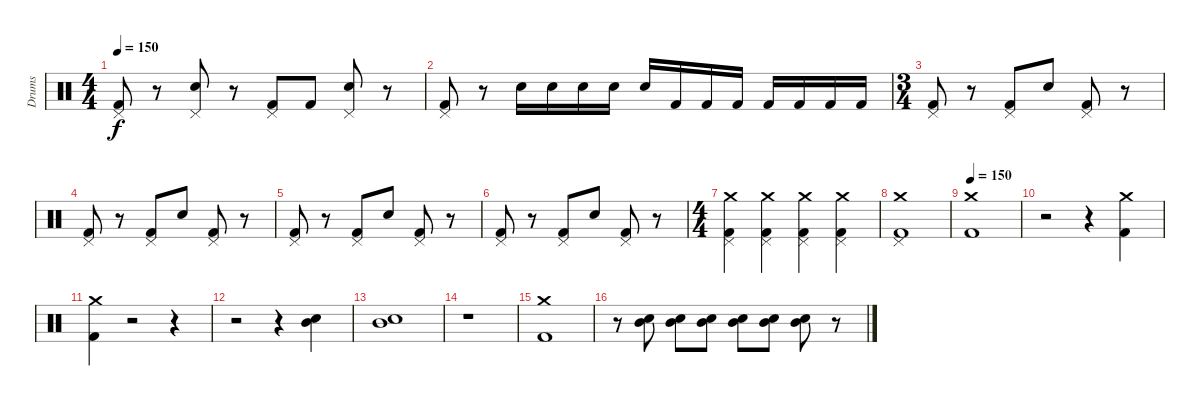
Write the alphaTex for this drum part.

\track ("Drums" "Drums") {instrument percussion}
\staff {score}
\articulation defaults
\ts (4 4)
\tempo 150
\clef neutral
\ks c
("Kick (hit) 2" "Pedal Hi-Hat (hit)").8{dy f} r.8 ("Pedal Hi-Hat (hit)" "Electric Snare (hit)").8 r.8 ("Kick (hit) 2" "Pedal Hi-Hat (hit)").8 "Kick (hit) 2".8 ("Pedal Hi-Hat (hit)" "Electric Snare (hit)").8 r.8 |
("Kick (hit) 2" "Pedal Hi-Hat (hit)").8 r.8 "Electric Snare (hit)".16 "Electric Snare (hit)".16 "Electric Snare (hit)".16 "Electric Snare (hit)".16 "Electric Snare (hit)".16 "Kick (hit) 2".16 "Kick (hit) 2".16 "Kick (hit) 2".16 "Kick (hit) 2".16 "Kick (hit) 2".16 "Kick (hit) 2".16 "Kick (hit) 2".16 |
\ts (3 4)
("Kick (hit) 2" "Pedal Hi-Hat (hit)").8 r.8 ("Kick (hit) 2" "Pedal Hi-Hat (hit)").8 "Electric Snare (hit)".8 ("Kick (hit) 2" "Pedal Hi-Hat (hit)").8 r.8 |
("Kick (hit) 2" "Pedal Hi-Hat (hit)").8 r.8 ("Kick (hit) 2" "Pedal Hi-Hat (hit)").8 "Electric Snare (hit)".8 ("Kick (hit) 2" "Pedal Hi-Hat (hit)").8 r.8 |
("Kick (hit) 2" "Pedal Hi-Hat (hit)").8 r.8 ("Kick (hit) 2" "Pedal Hi-Hat (hit)").8 "Electric Snare (hit)".8 ("Kick (hit) 2" "Pedal Hi-Hat (hit)").8 r.8 |
("Kick (hit) 2" "Pedal Hi-Hat (hit)").8 r.8 ("Kick (hit) 2" "Pedal Hi-Hat (hit)").8 "Electric Snare (hit)".8 ("Kick (hit) 2" "Pedal Hi-Hat (hit)").8 r.8 |
\ts (4 4)
("Kick (hit) 2" "Pedal Hi-Hat (hit)" "Crash medium (hit)").4 ("Kick (hit) 2" "Pedal Hi-Hat (hit)" "Crash medium (hit)").4 ("Kick (hit) 2" "Pedal Hi-Hat (hit)" "Crash medium (hit)").4 ("Kick (hit) 2" "Pedal Hi-Hat (hit)" "Crash medium (hit)").4 |
("Kick (hit) 2" "Pedal Hi-Hat (hit)" "Crash medium (hit)").1 |
\tempo 150
("Kick (hit) 2" "Crash medium (hit)").1 |
r.2 r.4 ("Kick (hit) 2" "Crash medium (hit)").4 |
("Kick (hit) 2" "Crash medium (hit)").4 r.2 r.4 |
r.2 r.4 ("Mid Tom (hit)" "Electric Snare (hit)").4 |
("Mid Tom (hit)" "Electric Snare (hit)").1 |
r.1 |
("Kick (hit) 2" "Crash medium (hit)").1 |
r.8 ("Mid Tom (hit)" "Electric Snare (hit)").8 ("Mid Tom (hit)" "Electric Snare (hit)").8 ("Mid Tom (hit)" "Electric Snare (hit)").8 ("Mid Tom (hit)" "Electric Snare (hit)").8 ("Mid Tom (hit)" "Electric Snare (hit)").8 ("Mid Tom (hit)" "Electric Snare (hit)").8 r.8
